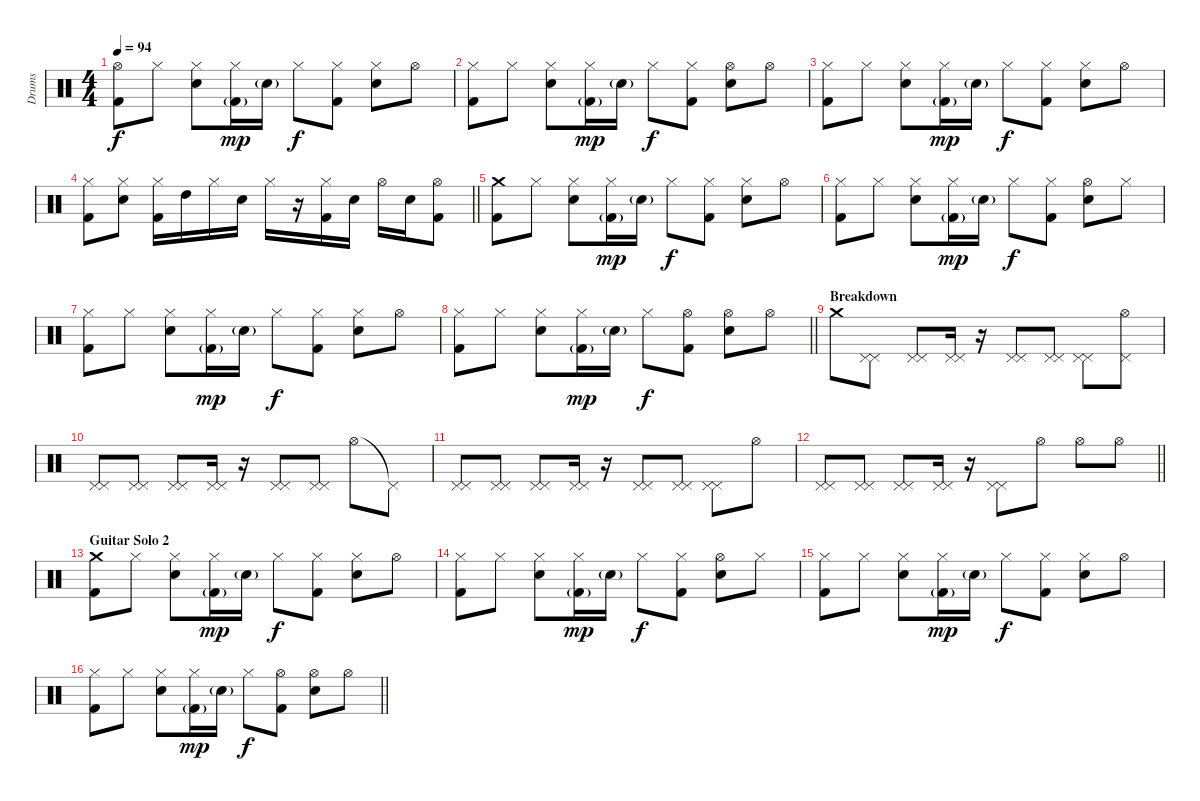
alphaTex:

\track ("Drums" "Drums") {instrument percussion}
\staff {score}
\articulation defaults
\ts (4 4)
\tempo 94
\clef neutral
\ks c
("Hi-Hat (open)" "Kick (hit) 2").8{dy f} "Hi-Hat (closed)".8 ("Hi-Hat (closed)" "Electric Snare (hit)").8 ("Hi-Hat (closed)" "Kick (hit) 2"{g}).16{dy mp} "Electric Snare (hit)"{g}.16 "Hi-Hat (closed)".8{dy f} ("Hi-Hat (closed)" "Kick (hit) 2").8 ("Hi-Hat (closed)" "Electric Snare (hit)").8 "Hi-Hat (open)".8 |
("Hi-Hat (closed)" "Kick (hit) 2").8 "Hi-Hat (closed)".8 ("Hi-Hat (closed)" "Electric Snare (hit)").8 ("Hi-Hat (closed)" "Kick (hit) 2"{g}).16{dy mp} "Electric Snare (hit)"{g}.16 "Hi-Hat (closed)".8{dy f} ("Hi-Hat (closed)" "Kick (hit) 2").8 ("Hi-Hat (open)" "Electric Snare (hit)").8 "Hi-Hat (open)".8 |
("Hi-Hat (closed)" "Kick (hit) 2").8 "Hi-Hat (closed)".8 ("Hi-Hat (closed)" "Electric Snare (hit)").8 ("Hi-Hat (closed)" "Kick (hit) 2"{g}).16{dy mp} "Electric Snare (hit)"{g}.16 "Hi-Hat (closed)".8{dy f} ("Hi-Hat (closed)" "Kick (hit) 2").8 ("Hi-Hat (closed)" "Electric Snare (hit)").8 "Hi-Hat (open)".8 |
\barLineRight lightlight
("Hi-Hat (closed)" "Kick (hit) 2").8 ("Hi-Hat (closed)" "Electric Snare (hit)").8 ("Hi-Hat (closed)" "Kick (hit) 2").16 "High Tom (hit)".16 "Hi-Hat (closed)".16 "Electric Snare (hit)".16 "Hi-Hat (closed)".16 r.16 ("Hi-Hat (closed)" "Kick (hit) 2").16 "Electric Snare (hit)".16 "Hi-Hat (open)".16 "Electric Snare (hit)".16 ("Hi-Hat (open)" "Kick (hit) 2").8 |
("Crash medium (hit)" "Kick (hit) 2").8 "Hi-Hat (closed)".8 ("Hi-Hat (closed)" "Electric Snare (hit)").8 ("Hi-Hat (closed)" "Kick (hit) 2"{g}).16{dy mp} "Electric Snare (hit)"{g}.16 "Hi-Hat (closed)".8{dy f} ("Hi-Hat (closed)" "Kick (hit) 2").8 ("Hi-Hat (closed)" "Electric Snare (hit)").8 "Hi-Hat (open)".8 |
("Hi-Hat (closed)" "Kick (hit) 2").8 "Hi-Hat (closed)".8 ("Hi-Hat (closed)" "Electric Snare (hit)").8 ("Hi-Hat (closed)" "Kick (hit) 2"{g}).16{dy mp} "Electric Snare (hit)"{g}.16 "Hi-Hat (closed)".8{dy f} ("Hi-Hat (closed)" "Kick (hit) 2").8 ("Hi-Hat (open)" "Electric Snare (hit)").8 "Hi-Hat (closed)".8 |
("Hi-Hat (closed)" "Kick (hit) 2").8 "Hi-Hat (closed)".8 ("Hi-Hat (closed)" "Electric Snare (hit)").8 ("Hi-Hat (closed)" "Kick (hit) 2"{g}).16{dy mp} "Electric Snare (hit)"{g}.16 "Hi-Hat (closed)".8{dy f} ("Hi-Hat (closed)" "Kick (hit) 2").8 ("Hi-Hat (closed)" "Electric Snare (hit)").8 "Hi-Hat (open)".8 |
\barLineRight lightlight
("Hi-Hat (closed)" "Kick (hit) 2").8 "Hi-Hat (closed)".8 ("Hi-Hat (closed)" "Electric Snare (hit)").8 ("Hi-Hat (closed)" "Kick (hit) 2"{g}).16{dy mp} "Electric Snare (hit)"{g}.16 "Hi-Hat (closed)".8{dy f} ("Hi-Hat (open)" "Kick (hit) 2").8 ("Hi-Hat (open)" "Electric Snare (hit)").8 "Hi-Hat (open)".8 |
\section ("" "Breakdown")
"Crash medium (hit)".8 ("Pedal Hi-Hat (hit)" "Pedal Hi-Hat (hit)").8 ("Pedal Hi-Hat (hit)" "Pedal Hi-Hat (hit)").8 ("Pedal Hi-Hat (hit)" "Pedal Hi-Hat (hit)").16 r.16 ("Pedal Hi-Hat (hit)" "Pedal Hi-Hat (hit)").8 ("Pedal Hi-Hat (hit)" "Pedal Hi-Hat (hit)").8 ("Pedal Hi-Hat (hit)" "Pedal Hi-Hat (hit)").8 ("Hi-Hat (open)" "Pedal Hi-Hat (hit)").8 |
("Pedal Hi-Hat (hit)" "Pedal Hi-Hat (hit)").8 ("Pedal Hi-Hat (hit)" "Pedal Hi-Hat (hit)").8 ("Pedal Hi-Hat (hit)" "Pedal Hi-Hat (hit)").8 ("Pedal Hi-Hat (hit)" "Pedal Hi-Hat (hit)").16 r.16 ("Pedal Hi-Hat (hit)" "Pedal Hi-Hat (hit)").8 ("Pedal Hi-Hat (hit)" "Pedal Hi-Hat (hit)").8 "Hi-Hat (open)".8 "Pedal Hi-Hat (hit)"{t}.8 |
("Pedal Hi-Hat (hit)" "Pedal Hi-Hat (hit)").8 ("Pedal Hi-Hat (hit)" "Pedal Hi-Hat (hit)").8 ("Pedal Hi-Hat (hit)" "Pedal Hi-Hat (hit)").8 ("Pedal Hi-Hat (hit)" "Pedal Hi-Hat (hit)").16 r.16 ("Pedal Hi-Hat (hit)" "Pedal Hi-Hat (hit)").8 ("Pedal Hi-Hat (hit)" "Pedal Hi-Hat (hit)").8 ("Pedal Hi-Hat (hit)" "Pedal Hi-Hat (hit)").8 "Hi-Hat (open)".8 |
\barLineRight lightlight
("Pedal Hi-Hat (hit)" "Pedal Hi-Hat (hit)").8 ("Pedal Hi-Hat (hit)" "Pedal Hi-Hat (hit)").8 ("Pedal Hi-Hat (hit)" "Pedal Hi-Hat (hit)").8 ("Pedal Hi-Hat (hit)" "Pedal Hi-Hat (hit)").16 r.16 ("Pedal Hi-Hat (hit)" "Pedal Hi-Hat (hit)").8 "Hi-Hat (open)".8 "Hi-Hat (open)".8 "Hi-Hat (open)".8 |
\section ("" "Guitar Solo 2")
("Crash medium (hit)" "Kick (hit) 2").8 "Hi-Hat (closed)".8 ("Hi-Hat (closed)" "Electric Snare (hit)").8 ("Hi-Hat (closed)" "Kick (hit) 2"{g}).16{dy mp} "Electric Snare (hit)"{g}.16 "Hi-Hat (closed)".8{dy f} ("Hi-Hat (closed)" "Kick (hit) 2").8 ("Hi-Hat (closed)" "Electric Snare (hit)").8 "Hi-Hat (open)".8 |
("Hi-Hat (closed)" "Kick (hit) 2").8 "Hi-Hat (closed)".8 ("Hi-Hat (closed)" "Electric Snare (hit)").8 ("Hi-Hat (closed)" "Kick (hit) 2"{g}).16{dy mp} "Electric Snare (hit)"{g}.16 "Hi-Hat (closed)".8{dy f} ("Hi-Hat (closed)" "Kick (hit) 2").8 ("Hi-Hat (open)" "Electric Snare (hit)").8 "Hi-Hat (closed)".8 |
("Hi-Hat (closed)" "Kick (hit) 2").8 "Hi-Hat (closed)".8 ("Hi-Hat (closed)" "Electric Snare (hit)").8 ("Hi-Hat (closed)" "Kick (hit) 2"{g}).16{dy mp} "Electric Snare (hit)"{g}.16 "Hi-Hat (closed)".8{dy f} ("Hi-Hat (closed)" "Kick (hit) 2").8 ("Hi-Hat (closed)" "Electric Snare (hit)").8 "Hi-Hat (open)".8 |
\barLineRight lightlight
("Hi-Hat (closed)" "Kick (hit) 2").8 "Hi-Hat (closed)".8 ("Hi-Hat (closed)" "Electric Snare (hit)").8 ("Hi-Hat (closed)" "Kick (hit) 2"{g}).16{dy mp} "Electric Snare (hit)"{g}.16 "Hi-Hat (closed)".8{dy f} ("Hi-Hat (open)" "Kick (hit) 2").8 ("Hi-Hat (open)" "Electric Snare (hit)").8 "Hi-Hat (open)".8
